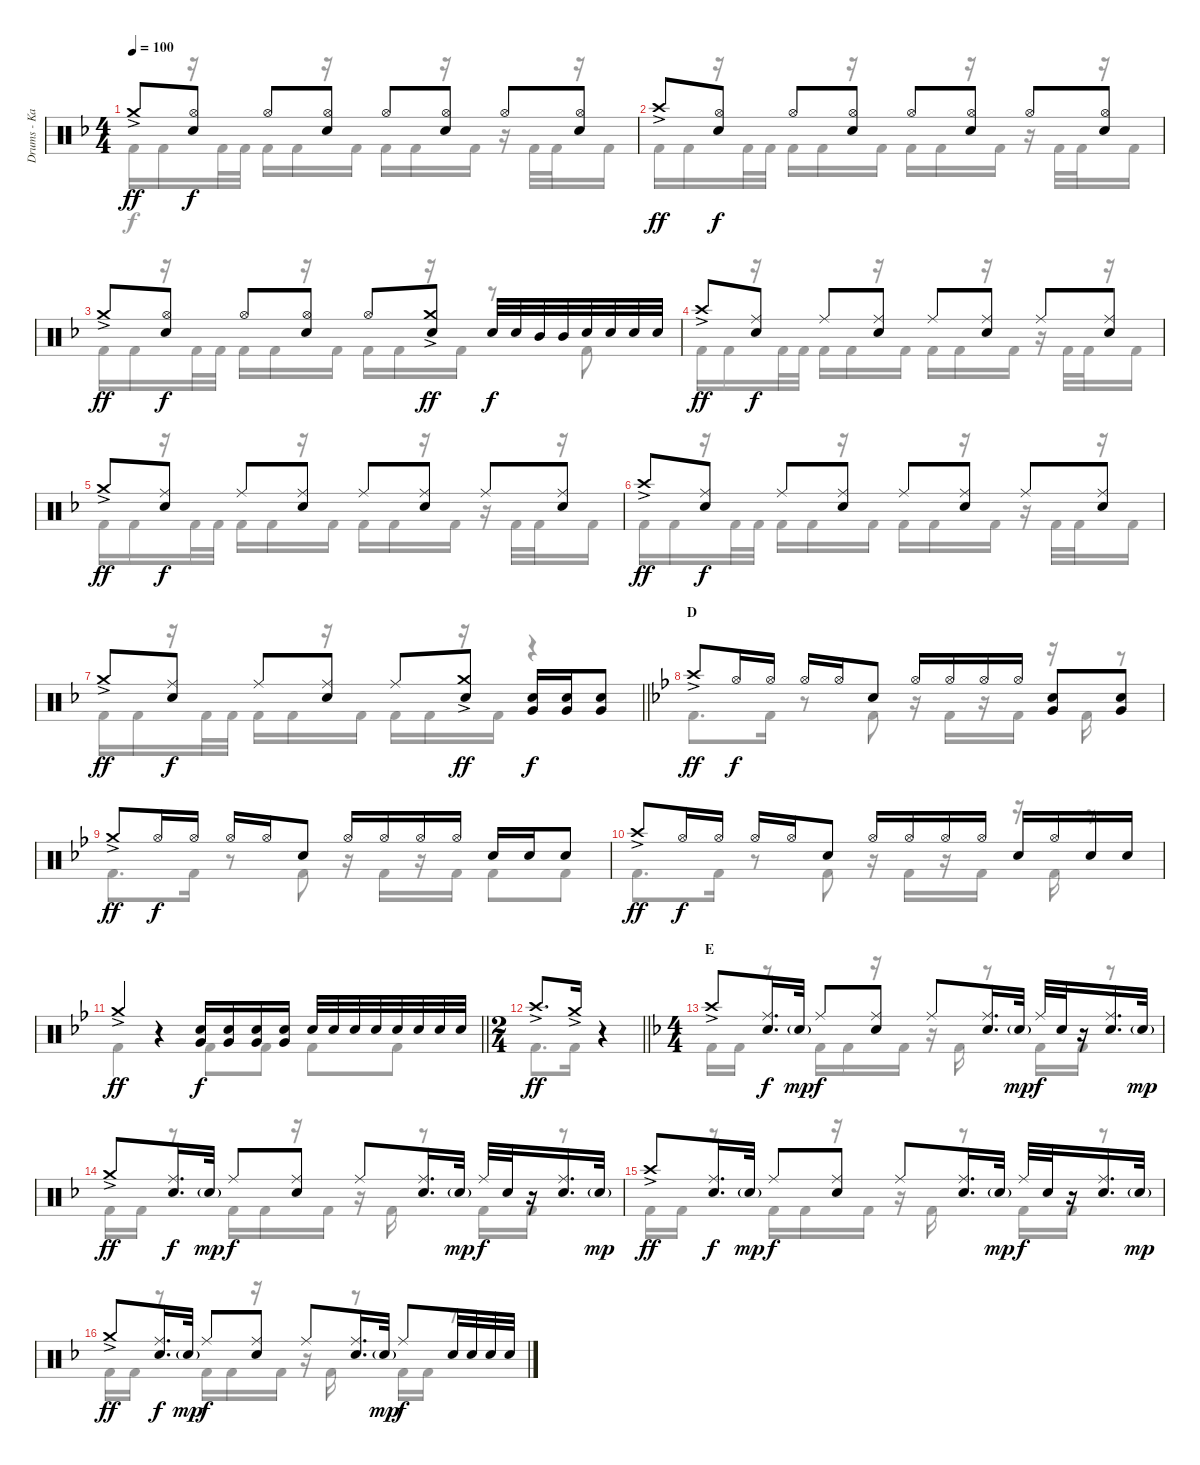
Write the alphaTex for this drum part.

\track ("Drums - Kai" "Drums - Ka") {instrument percussion}
\staff {score}
\articulation defaults
\voice
\ts (4 4)
\tempo 100
\clef neutral
\ks f "Crash medium (hit)"{ac}.8{dy ff}
("Hi-Hat (open)" "Electric Snare (hit)").8{dy f} "Hi-Hat (open)".8 ("Hi-Hat (open)" "Electric Snare (hit)").8 "Hi-Hat (open)".8 ("Hi-Hat (open)" "Electric Snare (hit)").8 "Hi-Hat (open)".8 ("Hi-Hat (open)" "Electric Snare (hit)").8 |
"Crash high (hit)"{ac}.8{dy ff} ("Hi-Hat (open)" "Electric Snare (hit)").8{dy f} "Hi-Hat (open)".8 ("Hi-Hat (open)" "Electric Snare (hit)").8 "Hi-Hat (open)".8 ("Hi-Hat (open)" "Electric Snare (hit)").8 "Hi-Hat (open)".8 ("Hi-Hat (open)" "Electric Snare (hit)").8 |
"Crash medium (hit)"{ac}.8{dy ff} ("Hi-Hat (open)" "Electric Snare (hit)").8{dy f} "Hi-Hat (open)".8 ("Hi-Hat (open)" "Electric Snare (hit)").8 "Hi-Hat (open)".8 ("Crash medium (hit)"{ac} "Electric Snare (hit)").8{dy ff} "Electric Snare (hit)".32{dy f} "Electric Snare (hit)".32 "Mid Tom (hit)".32 "Mid Tom (hit)".32 "Electric Snare (hit)".32 "Electric Snare (hit)".32 "Electric Snare (hit)".32 "Electric Snare (hit)".32 |
"Crash high (hit)"{ac}.8{dy ff} ("Ride (middle)" "Electric Snare (hit)").8{dy f} "Ride (middle)".8 ("Ride (middle)" "Electric Snare (hit)").8 "Ride (middle)".8 ("Ride (middle)" "Electric Snare (hit)").8 "Ride (middle)".8 ("Ride (middle)" "Electric Snare (hit)").8 |
"Crash medium (hit)"{ac}.8{dy ff} ("Ride (middle)" "Electric Snare (hit)").8{dy f} "Ride (middle)".8 ("Ride (middle)" "Electric Snare (hit)").8 "Ride (middle)".8 ("Ride (middle)" "Electric Snare (hit)").8 "Ride (middle)".8 ("Ride (middle)" "Electric Snare (hit)").8 |
"Crash high (hit)"{ac}.8{dy ff} ("Ride (middle)" "Electric Snare (hit)").8{dy f} "Ride (middle)".8 ("Ride (middle)" "Electric Snare (hit)").8 "Ride (middle)".8 ("Ride (middle)" "Electric Snare (hit)").8 "Ride (middle)".8 ("Ride (middle)" "Electric Snare (hit)").8 |
\barLineRight lightlight "Crash medium (hit)"{ac}.8{dy ff}
("Ride (middle)" "Electric Snare (hit)").8{dy f} "Ride (middle)".8 ("Ride (middle)" "Electric Snare (hit)").8 "Ride (middle)".8 ("Crash medium (hit)"{ac} "Electric Snare (hit)").8{dy ff} ("Very Low Tom (hit)" "Electric Snare (hit)").16{dy f} ("Very Low Tom (hit)" "Electric Snare (hit)").16 ("Very Low Tom (hit)" "Electric Snare (hit)").8 |
\section ("" "D")
\ks bb "Crash high (hit)"{ac}.8{dy ff} "Hi-Hat (open)".16{dy f} "Hi-Hat (open)".16 "Hi-Hat (open)".16 "Hi-Hat (open)".16 "Electric Snare (hit)".8 "Hi-Hat (open)".16 "Hi-Hat (open)".16 "Hi-Hat (open)".16 "Hi-Hat (open)".16
("Very Low Tom (hit)" "Electric Snare (hit)").8 ("Very Low Tom (hit)" "Electric Snare (hit)").8 |
"Crash medium (hit)"{ac}.8{dy ff} "Hi-Hat (open)".16{dy f} "Hi-Hat (open)".16 "Hi-Hat (open)".16 "Hi-Hat (open)".16 "Electric Snare (hit)".8 "Hi-Hat (open)".16 "Hi-Hat (open)".16 "Hi-Hat (open)".16 "Hi-Hat (open)".16 "Electric Snare (hit)".16 "Electric Snare (hit)".16 "Electric Snare (hit)".8 |
"Crash high (hit)"{ac}.8{dy ff} "Hi-Hat (open)".16{dy f} "Hi-Hat (open)".16 "Hi-Hat (open)".16 "Hi-Hat (open)".16 "Electric Snare (hit)".8 "Hi-Hat (open)".16 "Hi-Hat (open)".16 "Hi-Hat (open)".16 "Hi-Hat (open)".16 "Electric Snare (hit)".16 "Hi-Hat (open)".16 "Electric Snare (hit)".16 "Electric Snare (hit)".16 |
\barLineRight lightlight "Crash medium (hit)"{ac}.4{dy ff}
r.4 ("Very Low Tom (hit)" "Electric Snare (hit)").16{dy f} ("Very Low Tom (hit)" "Electric Snare (hit)").16 ("Very Low Tom (hit)" "Electric Snare (hit)").16 ("Very Low Tom (hit)" "Electric Snare (hit)").16 "Electric Snare (hit)".32 "Electric Snare (hit)".32 "Electric Snare (hit)".32 "Electric Snare (hit)".32 "Electric Snare (hit)".32 "Electric Snare (hit)".32 "Electric Snare (hit)".32 "Electric Snare (hit)".32 |
\ts (2 4)
\barLineRight lightlight "Crash high (hit)"{ac}.8{d dy ff} "Crash medium (hit)"{ac}.16
r.4 |
\ts (4 4)
\section ("" "E")
\ks f "Crash high (hit)"{ac}.8
("Ride (middle)" "Electric Snare (hit)").16{d dy f} "Electric Snare (hit)"{g}.32{dy mp} "Ride (middle)".8{dy f} ("Ride (middle)" "Electric Snare (hit)").8 "Ride (middle)".8 ("Ride (middle)" "Electric Snare (hit)").16{d} "Electric Snare (hit)"{g}.32{dy mp} "Ride (middle)".32{dy f} "Electric Snare (hit)".32 r.16 ("Ride (middle)" "Electric Snare (hit)").16{d} "Electric Snare (hit)"{g}.32{dy mp} |
"Crash medium (hit)"{ac}.8{dy ff} ("Ride (middle)" "Electric Snare (hit)").16{d dy f} "Electric Snare (hit)"{g}.32{dy mp} "Ride (middle)".8{dy f} ("Ride (middle)" "Electric Snare (hit)").8 "Ride (middle)".8 ("Ride (middle)" "Electric Snare (hit)").16{d} "Electric Snare (hit)"{g}.32{dy mp} "Ride (middle)".32{dy f} "Electric Snare (hit)".32 r.16 ("Ride (middle)" "Electric Snare (hit)").16{d} "Electric Snare (hit)"{g}.32{dy mp} |
"Crash high (hit)"{ac}.8{dy ff} ("Ride (middle)" "Electric Snare (hit)").16{d dy f} "Electric Snare (hit)"{g}.32{dy mp} "Ride (middle)".8{dy f} ("Ride (middle)" "Electric Snare (hit)").8 "Ride (middle)".8 ("Ride (middle)" "Electric Snare (hit)").16{d} "Electric Snare (hit)"{g}.32{dy mp} "Ride (middle)".32{dy f} "Electric Snare (hit)".32 r.16 ("Ride (middle)" "Electric Snare (hit)").16{d} "Electric Snare (hit)"{g}.32{dy mp} |
"Crash medium (hit)"{ac}.8{dy ff} ("Ride (middle)" "Electric Snare (hit)").16{d dy f} "Electric Snare (hit)"{g}.32{dy mp} "Ride (middle)".8{dy f} ("Ride (middle)" "Electric Snare (hit)").8 "Ride (middle)".8 ("Ride (middle)" "Electric Snare (hit)").16{d} "Electric Snare (hit)"{g}.32{dy mp} "Ride (middle)".8{dy f} "Electric Snare (hit)".32 "Electric Snare (hit)".32 "Electric Snare (hit)".32 "Electric Snare (hit)".32
\voice
\clef neutral
\ottava regular
\simile none
\ks f "Kick (hit) 2".16{dy f} "Kick (hit) 2".16
r.16 "Kick (hit) 2".32 "Kick (hit) 2".32 "Kick (hit) 2".16 "Kick (hit) 2".16 r.16 "Kick (hit) 2".16 "Kick (hit) 2".16 "Kick (hit) 2".16 r.16 "Kick (hit) 2".16 r.16 "Kick (hit) 2".32 "Kick (hit) 2".32 r.16 "Kick (hit) 2".16 |
"Kick (hit) 2".16 "Kick (hit) 2".16 r.16 "Kick (hit) 2".32 "Kick (hit) 2".32 "Kick (hit) 2".16 "Kick (hit) 2".16 r.16 "Kick (hit) 2".16 "Kick (hit) 2".16 "Kick (hit) 2".16 r.16 "Kick (hit) 2".16 r.16 "Kick (hit) 2".32 "Kick (hit) 2".32 r.16 "Kick (hit) 2".16 |
"Kick (hit) 2".16 "Kick (hit) 2".16 r.16 "Kick (hit) 2".32 "Kick (hit) 2".32 "Kick (hit) 2".16 "Kick (hit) 2".16 r.16 "Kick (hit) 2".16 "Kick (hit) 2".16 "Kick (hit) 2".16 r.16 "Kick (hit) 2".16 r.8 "Kick (hit) 2".8 |
"Kick (hit) 2".16 "Kick (hit) 2".16 r.16 "Kick (hit) 2".32 "Kick (hit) 2".32 "Kick (hit) 2".16 "Kick (hit) 2".16 r.16 "Kick (hit) 2".16 "Kick (hit) 2".16 "Kick (hit) 2".16 r.16 "Kick (hit) 2".16 r.16 "Kick (hit) 2".32 "Kick (hit) 2".32 r.16 "Kick (hit) 2".16 |
"Kick (hit) 2".16 "Kick (hit) 2".16 r.16 "Kick (hit) 2".32 "Kick (hit) 2".32 "Kick (hit) 2".16 "Kick (hit) 2".16 r.16 "Kick (hit) 2".16 "Kick (hit) 2".16 "Kick (hit) 2".16 r.16 "Kick (hit) 2".16 r.16 "Kick (hit) 2".32 "Kick (hit) 2".32 r.16 "Kick (hit) 2".16 |
"Kick (hit) 2".16 "Kick (hit) 2".16 r.16 "Kick (hit) 2".32 "Kick (hit) 2".32 "Kick (hit) 2".16 "Kick (hit) 2".16 r.16 "Kick (hit) 2".16 "Kick (hit) 2".16 "Kick (hit) 2".16 r.16 "Kick (hit) 2".16 r.16 "Kick (hit) 2".32 "Kick (hit) 2".32 r.16 "Kick (hit) 2".16 |
\barLineRight lightlight "Kick (hit) 2".16 "Kick (hit) 2".16
r.16 "Kick (hit) 2".32 "Kick (hit) 2".32 "Kick (hit) 2".16 "Kick (hit) 2".16 r.16 "Kick (hit) 2".16 "Kick (hit) 2".16 "Kick (hit) 2".16 r.16 "Kick (hit) 2".16 r.4 |
\ks bb "Kick (hit) 2".8{d} "Kick (hit) 2".16
r.8 "Kick (hit) 2".8 r.16 "Kick (hit) 2".16 r.16 "Kick (hit) 2".16 r.16 "Kick (hit) 2".16 r.8 |
"Kick (hit) 2".8{d} "Kick (hit) 2".16 r.8 "Kick (hit) 2".8 r.16 "Kick (hit) 2".16 r.16 "Kick (hit) 2".16 "Kick (hit) 2".8 "Kick (hit) 2".8 |
"Kick (hit) 2".8{d} "Kick (hit) 2".16 r.8 "Kick (hit) 2".8 r.16 "Kick (hit) 2".16 r.16 "Kick (hit) 2".16 r.16 "Kick (hit) 2".16 r.8 |
\barLineRight lightlight "Kick (hit) 2".4
r.4 "Kick (hit) 2".8 "Kick (hit) 2".8 "Kick (hit) 2".8 "Kick (hit) 2".8 |
\barLineRight lightlight "Kick (hit) 2".8{d} "Kick (hit) 2".16
r.4 |
\ks f "Kick (hit) 2".16 "Kick (hit) 2".16
r.8 "Kick (hit) 2".16 "Kick (hit) 2".16 r.16 "Kick (hit) 2".16 r.16 "Kick (hit) 2".16 r.8 "Kick (hit) 2".16 "Kick (hit) 2".16 r.8 |
"Kick (hit) 2".16 "Kick (hit) 2".16 r.8 "Kick (hit) 2".16 "Kick (hit) 2".16 r.16 "Kick (hit) 2".16 r.16 "Kick (hit) 2".16 r.8 "Kick (hit) 2".16 "Kick (hit) 2".16 r.8 |
"Kick (hit) 2".16 "Kick (hit) 2".16 r.8 "Kick (hit) 2".16 "Kick (hit) 2".16 r.16 "Kick (hit) 2".16 r.16 "Kick (hit) 2".16 r.8 "Kick (hit) 2".16 "Kick (hit) 2".16 r.8 |
"Kick (hit) 2".16 "Kick (hit) 2".16 r.8 "Kick (hit) 2".16 "Kick (hit) 2".16 r.16 "Kick (hit) 2".16 r.16 "Kick (hit) 2".16 r.8 "Kick (hit) 2".16 "Kick (hit) 2".16 r.8
